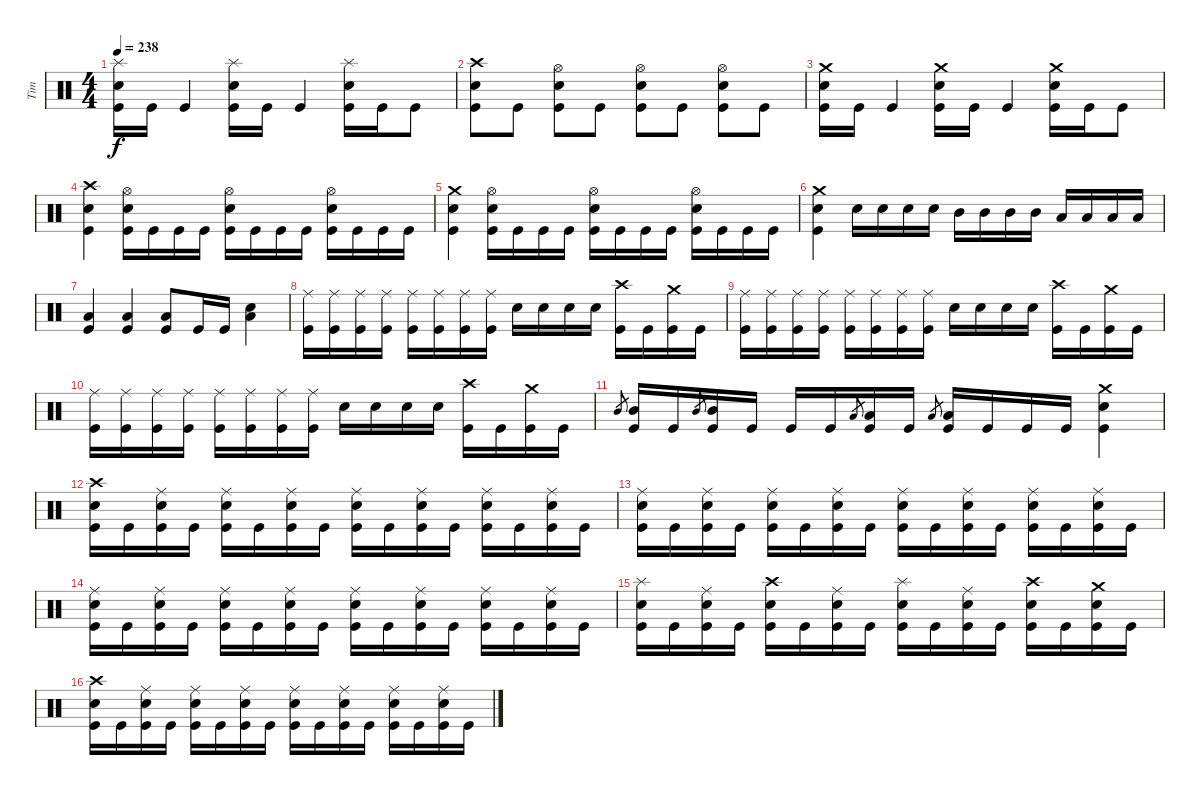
\track ("Tim" "Tim") {instrument percussion}
\staff {score}
\articulation defaults
\ts (4 4)
\tempo 238
\clef neutral
\ks c
("Splash (hit)" "Electric Snare (hit)" "Kick (hit)").16{dy f} "Kick (hit)".16 "Kick (hit)".4 ("Splash (hit)" "Electric Snare (hit)" "Kick (hit)").16 "Kick (hit)".16 "Kick (hit)".4 ("Splash (hit)" "Electric Snare (hit)" "Kick (hit)").16 "Kick (hit)".16 "Kick (hit)".8 |
("Crash high (hit)" "Electric Snare (hit)" "Kick (hit)").8 "Kick (hit)".8 ("Hi-Hat (open)" "Electric Snare (hit)" "Kick (hit)").8 "Kick (hit)".8 ("Hi-Hat (open)" "Electric Snare (hit)" "Kick (hit)").8 "Kick (hit)".8 ("Hi-Hat (open)" "Electric Snare (hit)" "Kick (hit)").8 "Kick (hit)".8 |
("Crash medium (hit)" "Electric Snare (hit)" "Kick (hit)").16 "Kick (hit)".16 "Kick (hit)".4 ("Crash medium (hit)" "Electric Snare (hit)" "Kick (hit)").16 "Kick (hit)".16 "Kick (hit)".4 ("Crash medium (hit)" "Electric Snare (hit)" "Kick (hit)").16 "Kick (hit)".16 "Kick (hit)".8 |
("Crash high (hit)" "Electric Snare (hit)" "Kick (hit)").4 ("Hi-Hat (open)" "Electric Snare (hit)" "Kick (hit)").16 "Kick (hit)".16 "Kick (hit)".16 "Kick (hit)".16 ("Hi-Hat (open)" "Electric Snare (hit)" "Kick (hit)").16 "Kick (hit)".16 "Kick (hit)".16 "Kick (hit)".16 ("Hi-Hat (open)" "Electric Snare (hit)" "Kick (hit)").16 "Kick (hit)".16 "Kick (hit)".16 "Kick (hit)".16 |
("Crash medium (hit)" "Electric Snare (hit)" "Kick (hit)").4 ("Hi-Hat (open)" "Electric Snare (hit)" "Kick (hit)").16 "Kick (hit)".16 "Kick (hit)".16 "Kick (hit)".16 ("Hi-Hat (open)" "Electric Snare (hit)" "Kick (hit)").16 "Kick (hit)".16 "Kick (hit)".16 "Kick (hit)".16 ("Hi-Hat (open)" "Electric Snare (hit)" "Kick (hit)").16 "Kick (hit)".16 "Kick (hit)".16 "Kick (hit)".16 |
("Crash medium (hit)" "Electric Snare (hit)" "Kick (hit)").4 "Electric Snare (hit)".16 "Electric Snare (hit)".16 "Electric Snare (hit)".16 "Electric Snare (hit)".16 "Mid Tom (hit)".16 "Mid Tom (hit)".16 "Mid Tom (hit)".16 "Mid Tom (hit)".16 "Low Tom (hit)".16 "Low Tom (hit)".16 "Low Tom (hit)".16 "Low Tom (hit)".16 |
("Low Floor Tom (hit)" "Kick (hit)").4 ("Low Floor Tom (hit)" "Kick (hit)").4 ("Low Floor Tom (hit)" "Kick (hit)").8 "Kick (hit)".16 "Kick (hit)".16 ("Electric Snare (hit)" "Low Floor Tom (hit)").4 |
("Ride (middle)" "Kick (hit)").16 ("Ride (middle)" "Kick (hit)").16 ("Ride (middle)" "Kick (hit)").16 ("Ride (middle)" "Kick (hit)").16 ("Ride (middle)" "Kick (hit)").16 ("Ride (middle)" "Kick (hit)").16 ("Ride (middle)" "Kick (hit)").16 ("Ride (middle)" "Kick (hit)").16 "Electric Snare (hit)".16 "Electric Snare (hit)".16 "Electric Snare (hit)".16 "Electric Snare (hit)".16 ("Crash high (hit)" "Kick (hit)").16 "Kick (hit)".16 ("Crash medium (hit)" "Kick (hit)").16 "Kick (hit)".16 |
("Ride (middle)" "Kick (hit)").16 ("Ride (middle)" "Kick (hit)").16 ("Ride (middle)" "Kick (hit)").16 ("Ride (middle)" "Kick (hit)").16 ("Ride (middle)" "Kick (hit)").16 ("Ride (middle)" "Kick (hit)").16 ("Ride (middle)" "Kick (hit)").16 ("Ride (middle)" "Kick (hit)").16 "Electric Snare (hit)".16 "Electric Snare (hit)".16 "Electric Snare (hit)".16 "Electric Snare (hit)".16 ("Crash high (hit)" "Kick (hit)").16 "Kick (hit)".16 ("Crash medium (hit)" "Kick (hit)").16 "Kick (hit)".16 |
("Ride (middle)" "Kick (hit)").16 ("Ride (middle)" "Kick (hit)").16 ("Ride (middle)" "Kick (hit)").16 ("Ride (middle)" "Kick (hit)").16 ("Ride (middle)" "Kick (hit)").16 ("Ride (middle)" "Kick (hit)").16 ("Ride (middle)" "Kick (hit)").16 ("Ride (middle)" "Kick (hit)").16 "Electric Snare (hit)".16 "Electric Snare (hit)".16 "Electric Snare (hit)".16 "Electric Snare (hit)".16 ("Crash high (hit)" "Kick (hit)").16 "Kick (hit)".16 ("Crash medium (hit)" "Kick (hit)").16 "Kick (hit)".16 |
"Mid Tom (hit)".8{gr} ("Mid Tom (hit)" "Kick (hit)").16 "Kick (hit)".16 "Mid Tom (hit)".8{gr} ("Mid Tom (hit)" "Kick (hit)").16 "Kick (hit)".16 "Kick (hit)".16 "Kick (hit)".16 "Low Tom (hit)".8{gr} ("Low Tom (hit)" "Kick (hit)").16 "Kick (hit)".16 "Low Tom (hit)".8{gr} ("Low Tom (hit)" "Kick (hit)").16 "Kick (hit)".16 "Kick (hit)".16 "Kick (hit)".16 ("Crash medium (hit)" "Electric Snare (hit)" "Kick (hit)").4 |
("Crash high (hit)" "Electric Snare (hit)" "Kick (hit)").16 "Kick (hit)".16 ("Ride (middle)" "Electric Snare (hit)" "Kick (hit)").16 "Kick (hit)".16 ("Ride (middle)" "Electric Snare (hit)" "Kick (hit)").16 "Kick (hit)".16 ("Ride (middle)" "Electric Snare (hit)" "Kick (hit)").16 "Kick (hit)".16 ("Ride (middle)" "Electric Snare (hit)" "Kick (hit)").16 "Kick (hit)".16 ("Ride (middle)" "Electric Snare (hit)" "Kick (hit)").16 "Kick (hit)".16 ("Ride (middle)" "Electric Snare (hit)" "Kick (hit)").16 "Kick (hit)".16 ("Ride (middle)" "Electric Snare (hit)" "Kick (hit)").16 "Kick (hit)".16 |
("Ride (middle)" "Electric Snare (hit)" "Kick (hit)").16 "Kick (hit)".16 ("Ride (middle)" "Electric Snare (hit)" "Kick (hit)").16 "Kick (hit)".16 ("Ride (middle)" "Electric Snare (hit)" "Kick (hit)").16 "Kick (hit)".16 ("Ride (middle)" "Electric Snare (hit)" "Kick (hit)").16 "Kick (hit)".16 ("Ride (middle)" "Electric Snare (hit)" "Kick (hit)").16 "Kick (hit)".16 ("Ride (middle)" "Electric Snare (hit)" "Kick (hit)").16 "Kick (hit)".16 ("Ride (middle)" "Electric Snare (hit)" "Kick (hit)").16 "Kick (hit)".16 ("Ride (middle)" "Electric Snare (hit)" "Kick (hit)").16 "Kick (hit)".16 |
("Ride (middle)" "Electric Snare (hit)" "Kick (hit)").16 "Kick (hit)".16 ("Ride (middle)" "Electric Snare (hit)" "Kick (hit)").16 "Kick (hit)".16 ("Ride (middle)" "Electric Snare (hit)" "Kick (hit)").16 "Kick (hit)".16 ("Ride (middle)" "Electric Snare (hit)" "Kick (hit)").16 "Kick (hit)".16 ("Ride (middle)" "Electric Snare (hit)" "Kick (hit)").16 "Kick (hit)".16 ("Ride (middle)" "Electric Snare (hit)" "Kick (hit)").16 "Kick (hit)".16 ("Ride (middle)" "Electric Snare (hit)" "Kick (hit)").16 "Kick (hit)".16 ("Ride (middle)" "Electric Snare (hit)" "Kick (hit)").16 "Kick (hit)".16 |
("Splash (hit)" "Electric Snare (hit)" "Kick (hit)").16 "Kick (hit)".16 ("Ride (middle)" "Electric Snare (hit)" "Kick (hit)").16 "Kick (hit)".16 ("Crash high (hit)" "Electric Snare (hit)" "Kick (hit)").16 "Kick (hit)".16 ("Ride (middle)" "Electric Snare (hit)" "Kick (hit)").16 "Kick (hit)".16 ("Splash (hit)" "Electric Snare (hit)" "Kick (hit)").16 "Kick (hit)".16 ("Ride (middle)" "Electric Snare (hit)" "Kick (hit)").16 "Kick (hit)".16 ("Crash high (hit)" "Electric Snare (hit)" "Kick (hit)").16 "Kick (hit)".16 ("Crash medium (hit)" "Electric Snare (hit)" "Kick (hit)").16 "Kick (hit)".16 |
("Crash high (hit)" "Electric Snare (hit)" "Kick (hit)").16 "Kick (hit)".16 ("Ride (middle)" "Electric Snare (hit)" "Kick (hit)").16 "Kick (hit)".16 ("Ride (middle)" "Electric Snare (hit)" "Kick (hit)").16 "Kick (hit)".16 ("Ride (middle)" "Electric Snare (hit)" "Kick (hit)").16 "Kick (hit)".16 ("Ride (middle)" "Electric Snare (hit)" "Kick (hit)").16 "Kick (hit)".16 ("Ride (middle)" "Electric Snare (hit)" "Kick (hit)").16 "Kick (hit)".16 ("Ride (middle)" "Electric Snare (hit)" "Kick (hit)").16 "Kick (hit)".16 ("Ride (middle)" "Electric Snare (hit)" "Kick (hit)").16 "Kick (hit)".16
